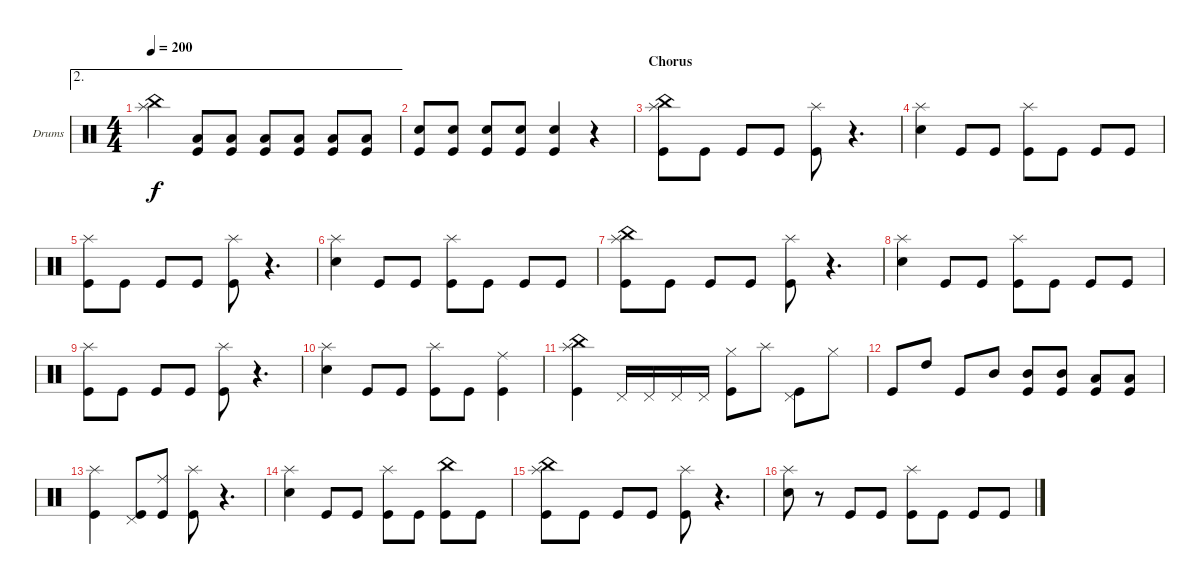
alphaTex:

\defaultSystemsLayout 4
\bracketExtendMode groupsimilarinstruments
\firstSystemTrackNameOrientation horizontal
\otherSystemsTrackNameOrientation horizontal
\track ("Drumkit" "Drums") {instrument percussion}
\staff {score}
\articulation defaults
\ae 2
\ts (4 4)
\tempo 200
\clef neutral
\ks c
("Splash (hit)" "China (hit)").4{dy f} ("Kick (hit)" "Low Tom (hit)").8 ("Kick (hit)" "Low Tom (hit)").8 ("Kick (hit)" "Low Tom (hit)").8 ("Kick (hit)" "Low Tom (hit)").8 ("Kick (hit)" "Low Tom (hit)").8 ("Kick (hit)" "Low Tom (hit)").8 |
("Kick (hit)" "Snare (hit) 2").8 ("Kick (hit)" "Snare (hit) 2").8 ("Kick (hit)" "Snare (hit) 2").8 ("Kick (hit)" "Snare (hit) 2").8 ("Kick (hit)" "Snare (hit) 2").4 r.4 |
\section ("" "Chorus")
("Kick (hit)" "Splash (hit)" "China (hit)").8 "Kick (hit)".8 "Kick (hit)".8 "Kick (hit)".8 ("Kick (hit)" "Splash (hit)").8 r.4{d} |
("Snare (hit) 2" "Splash (hit)").4 "Kick (hit)".8 "Kick (hit)".8 ("Kick (hit)" "Splash (hit)").8 "Kick (hit)".8 "Kick (hit)".8 "Kick (hit)".8 |
("Kick (hit)" "Splash (hit)").8 "Kick (hit)".8 "Kick (hit)".8 "Kick (hit)".8 ("Kick (hit)" "Splash (hit)").8 r.4{d} |
("Snare (hit) 2" "Splash (hit)").4 "Kick (hit)".8 "Kick (hit)".8 ("Kick (hit)" "Splash (hit)").8 "Kick (hit)".8 "Kick (hit)".8 "Kick (hit)".8 |
("Kick (hit)" "Splash (hit)" "China (hit)").8 "Kick (hit)".8 "Kick (hit)".8 "Kick (hit)".8 ("Kick (hit)" "Splash (hit)").8 r.4{d} |
("Snare (hit) 2" "Splash (hit)").4 "Kick (hit)".8 "Kick (hit)".8 ("Kick (hit)" "Splash (hit)").8 "Kick (hit)".8 "Kick (hit)".8 "Kick (hit)".8 |
("Kick (hit)" "Splash (hit)").8 "Kick (hit)".8 "Kick (hit)".8 "Kick (hit)".8 ("Kick (hit)" "Splash (hit)").8 r.4{d} |
("Snare (hit) 2" "Splash (hit)").4 "Kick (hit)".8 "Kick (hit)".8 ("Kick (hit)" "Splash (hit)").8 "Kick (hit)".8 ("Kick (hit)" "Ride (middle)").4 |
("Kick (hit)" "Splash (hit)" "China (hit)").4 "Pedal Hi-Hat (hit)".16 "Pedal Hi-Hat (hit)".16 "Pedal Hi-Hat (hit)".16 "Pedal Hi-Hat (hit)".16 ("Kick (hit)" "Hi-Hat (closed)").8 "Splash (hit)".8 ("Pedal Hi-Hat (hit)" "Kick (hit)").8 "Hi-Hat (closed)".8 |
"Kick (hit)".8 "High Tom (hit)".8 "Kick (hit)".8 "Mid Tom (hit)".8 ("Kick (hit)" "Mid Tom (hit)").8 ("Kick (hit)" "Mid Tom (hit)").8 ("Kick (hit)" "Low Tom (hit)").8 ("Kick (hit)" "Low Tom (hit)").8 |
("Kick (hit)" "Splash (hit)").4 ("Kick (hit)" "Pedal Hi-Hat (hit)").8 ("Kick (hit)" "Ride (middle)").8 ("Kick (hit)" "Splash (hit)").8 r.4{d} |
("Snare (hit) 2" "Splash (hit)").4 "Kick (hit)".8 "Kick (hit)".8 ("Kick (hit)" "Splash (hit)").8 "Kick (hit)".8 ("Kick (hit)" "China (hit)").8 "Kick (hit)".8 |
("Kick (hit)" "Splash (hit)" "China (hit)").8 "Kick (hit)".8 "Kick (hit)".8 "Kick (hit)".8 ("Kick (hit)" "Splash (hit)").8 r.4{d} |
("Snare (hit) 2" "Splash (hit)").8 r.8 "Kick (hit)".8 "Kick (hit)".8 ("Kick (hit)" "Splash (hit)").8 "Kick (hit)".8 "Kick (hit)".8 "Kick (hit)".8
